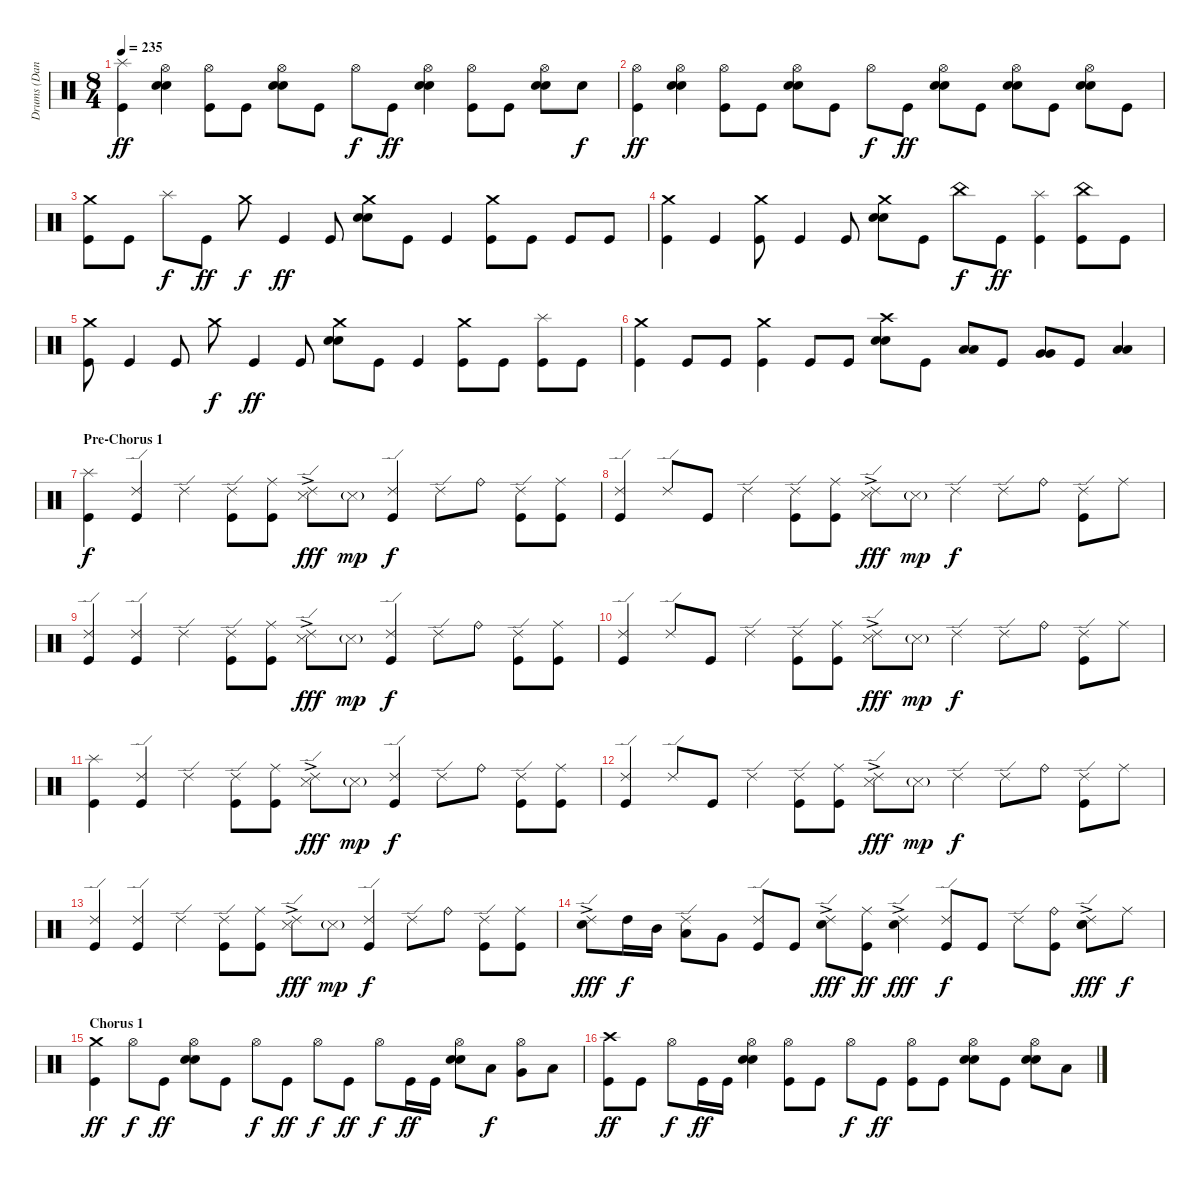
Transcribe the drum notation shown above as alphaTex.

\track ("Drums (Dan)" "Drums (Dan") {instrument percussion}
\staff {score}
\articulation defaults
\ts (8 4)
\tempo 235
\clef neutral
\ks c
("Kick (hit)" "Splash (hit)").4{dy ff} ("Electric Snare (hit)" "Electric Snare (hit)" "Hi-Hat (open)").4 ("Kick (hit)" "Hi-Hat (open)").8 "Kick (hit)".8 ("Electric Snare (hit)" "Electric Snare (hit)" "Hi-Hat (open)").8 "Kick (hit)".8 "Hi-Hat (open)".8{dy f} "Kick (hit)".8{dy ff} ("Electric Snare (hit)" "Electric Snare (hit)" "Hi-Hat (open)").4 ("Kick (hit)" "Hi-Hat (open)").8 "Kick (hit)".8 ("Electric Snare (hit)" "Electric Snare (hit)" "Hi-Hat (open)").8 "Electric Snare (hit)".8{dy f} |
("Kick (hit)" "Hi-Hat (open)").4{dy ff} ("Electric Snare (hit)" "Electric Snare (hit)" "Hi-Hat (open)").4 ("Kick (hit)" "Hi-Hat (open)").8 "Kick (hit)".8 ("Electric Snare (hit)" "Electric Snare (hit)" "Hi-Hat (open)").8 "Kick (hit)".8 "Hi-Hat (open)".8{dy f} "Kick (hit)".8{dy ff} ("Electric Snare (hit)" "Electric Snare (hit)" "Hi-Hat (open)").8 "Kick (hit)".8 ("Electric Snare (hit)" "Electric Snare (hit)" "Hi-Hat (open)").8 "Kick (hit)".8 ("Electric Snare (hit)" "Electric Snare (hit)" "Hi-Hat (open)").8 "Kick (hit)".8 |
("Kick (hit)" "Crash medium (hit)").8 "Kick (hit)".8 "Splash (hit)".8{dy f} "Kick (hit)".8{dy ff} "Crash medium (hit)".8{dy f} "Kick (hit)".4{dy ff} "Kick (hit)".8 ("Electric Snare (hit)" "Electric Snare (hit)" "Crash medium (hit)").8 "Kick (hit)".8 "Kick (hit)".4 ("Kick (hit)" "Crash medium (hit)").8 "Kick (hit)".8 "Kick (hit)".8 "Kick (hit)".8 |
("Kick (hit)" "Crash medium (hit)").4 "Kick (hit)".4 ("Kick (hit)" "Crash medium (hit)").8 "Kick (hit)".4 "Kick (hit)".8 ("Electric Snare (hit)" "Electric Snare (hit)" "Crash medium (hit)").8 "Kick (hit)".8 "China (hit)".8{dy f} "Kick (hit)".8{dy ff} ("Kick (hit)" "Splash (hit)").4 ("Kick (hit)" "China (hit)").8 "Kick (hit)".8 |
("Kick (hit)" "Crash medium (hit)").8 "Kick (hit)".4 "Kick (hit)".8 "Crash medium (hit)".8{dy f} "Kick (hit)".4{dy ff} "Kick (hit)".8 ("Electric Snare (hit)" "Electric Snare (hit)" "Crash medium (hit)").8 "Kick (hit)".8 "Kick (hit)".4 ("Kick (hit)" "Crash medium (hit)").8 "Kick (hit)".8 ("Kick (hit)" "Splash (hit)").8 "Kick (hit)".8 |
("Kick (hit)" "Crash medium (hit)").4 "Kick (hit)".8 "Kick (hit)".8 ("Kick (hit)" "Crash medium (hit)").4 "Kick (hit)".8 "Kick (hit)".8 ("Electric Snare (hit)" "Electric Snare (hit)" "Crash high (hit)").8 "Kick (hit)".8 ("Low Tom (hit)" "Low Tom (hit)").8 "Kick (hit)".8 ("Very Low Tom (hit)" "Very Low Tom (hit)").8 "Kick (hit)".8 ("Low Floor Tom (hit)" "Low Floor Tom (hit)").4 |
\section ("" "Pre-Chorus 1")
("Kick (hit)" "Splash (hit)").4{dy f} ("Kick (hit)" "Ride (edge) 2").4 "Ride (edge) 2".4 ("Kick (hit)" "Ride (edge) 2").8 ("Kick (hit)" "Ride (middle)").8 ("Snare (side stick) 3"{ac} "Ride (edge) 2").8{dy fff} "Snare (side stick) 3"{g}.8{dy mp} ("Kick (hit)" "Ride (edge) 2").4{dy f} "Ride (edge) 2".8 "Ride (bell)".8 ("Kick (hit)" "Ride (edge) 2").8 ("Kick (hit)" "Ride (middle)").8 |
("Kick (hit)" "Ride (edge) 2").4 "Ride (edge) 2".8 "Kick (hit)".8 "Ride (edge) 2".4 ("Kick (hit)" "Ride (edge) 2").8 ("Kick (hit)" "Ride (middle)").8 ("Snare (side stick) 3"{ac} "Ride (edge) 2").8{dy fff} "Snare (side stick) 3"{g}.8{dy mp} "Ride (edge) 2".4{dy f} "Ride (edge) 2".8 "Ride (bell)".8 ("Kick (hit)" "Ride (edge) 2").8 "Ride (middle)".8 |
("Kick (hit)" "Ride (edge) 2").4 ("Kick (hit)" "Ride (edge) 2").4 "Ride (edge) 2".4 ("Kick (hit)" "Ride (edge) 2").8 ("Kick (hit)" "Ride (middle)").8 ("Snare (side stick) 3"{ac} "Ride (edge) 2").8{dy fff} "Snare (side stick) 3"{g}.8{dy mp} ("Kick (hit)" "Ride (edge) 2").4{dy f} "Ride (edge) 2".8 "Ride (bell)".8 ("Kick (hit)" "Ride (edge) 2").8 ("Kick (hit)" "Ride (middle)").8 |
("Kick (hit)" "Ride (edge) 2").4 "Ride (edge) 2".8 "Kick (hit)".8 "Ride (edge) 2".4 ("Kick (hit)" "Ride (edge) 2").8 ("Kick (hit)" "Ride (middle)").8 ("Snare (side stick) 3"{ac} "Ride (edge) 2").8{dy fff} "Snare (side stick) 3"{g}.8{dy mp} "Ride (edge) 2".4{dy f} "Ride (edge) 2".8 "Ride (bell)".8 ("Kick (hit)" "Ride (edge) 2").8 "Ride (middle)".8 |
("Kick (hit)" "Splash (hit)").4 ("Kick (hit)" "Ride (edge) 2").4 "Ride (edge) 2".4 ("Kick (hit)" "Ride (edge) 2").8 ("Kick (hit)" "Ride (middle)").8 ("Snare (side stick) 3"{ac} "Ride (edge) 2").8{dy fff} "Snare (side stick) 3"{g}.8{dy mp} ("Kick (hit)" "Ride (edge) 2").4{dy f} "Ride (edge) 2".8 "Ride (bell)".8 ("Kick (hit)" "Ride (edge) 2").8 ("Kick (hit)" "Ride (middle)").8 |
("Kick (hit)" "Ride (edge) 2").4 "Ride (edge) 2".8 "Kick (hit)".8 "Ride (edge) 2".4 ("Kick (hit)" "Ride (edge) 2").8 ("Kick (hit)" "Ride (middle)").8 ("Snare (side stick) 3"{ac} "Ride (edge) 2").8{dy fff} "Snare (side stick) 3"{g}.8{dy mp} "Ride (edge) 2".4{dy f} "Ride (edge) 2".8 "Ride (bell)".8 ("Kick (hit)" "Ride (edge) 2").8 "Ride (middle)".8 |
("Kick (hit)" "Ride (edge) 2").4 ("Kick (hit)" "Ride (edge) 2").4 "Ride (edge) 2".4 ("Kick (hit)" "Ride (edge) 2").8 ("Kick (hit)" "Ride (middle)").8 ("Snare (side stick) 3"{ac} "Ride (edge) 2").8{dy fff} "Snare (side stick) 3"{g}.8{dy mp} ("Kick (hit)" "Ride (edge) 2").4{dy f} "Ride (edge) 2".8 "Ride (bell)".8 ("Kick (hit)" "Ride (edge) 2").8 ("Kick (hit)" "Ride (middle)").8 |
("Electric Snare (hit)"{ac} "Ride (edge) 2").8{dy fff} "High Tom (hit)".16{dy f} "Mid Tom (hit)".16 ("Low Tom (hit)" "Ride (edge) 2").8 "Very Low Tom (hit)".8 ("Kick (hit)" "Ride (edge) 2").8 "Kick (hit)".8 ("Electric Snare (hit)"{ac} "Ride (edge) 2").8{dy fff} ("Kick (hit)" "Ride (middle)").8{dy ff} ("Electric Snare (hit)"{ac} "Ride (edge) 2").4{dy fff} ("Kick (hit)" "Ride (edge) 2").8{dy f} "Kick (hit)".8 "Ride (edge) 2".8 ("Kick (hit)" "Ride (bell)").8 ("Electric Snare (hit)"{ac} "Electric Snare (hit)" "Ride (edge) 2").8{dy fff} "Ride (middle)".8{dy f} |
\section ("" "Chorus 1")
("Kick (hit)" "Crash medium (hit)").4{dy ff} "Hi-Hat (open)".8{dy f} "Kick (hit)".8{dy ff} ("Electric Snare (hit)" "Electric Snare (hit)" "Hi-Hat (open)").8 "Kick (hit)".8 "Hi-Hat (open)".8{dy f} "Kick (hit)".8{dy ff} "Hi-Hat (open)".8{dy f} "Kick (hit)".8{dy ff} "Hi-Hat (open)".8{dy f} "Kick (hit)".16{dy ff} "Kick (hit)".16 ("Electric Snare (hit)" "Electric Snare (hit)" "Hi-Hat (open)").8 "Low Tom (hit)".8{dy f} ("Very Low Tom (hit)" "Hi-Hat (open)").8 "Low Floor Tom (hit)".8 |
("Kick (hit)" "Crash high (hit)").8{dy ff} "Kick (hit)".8 "Hi-Hat (open)".8{dy f} "Kick (hit)".16{dy ff} "Kick (hit)".16 ("Electric Snare (hit)" "Electric Snare (hit)" "Hi-Hat (open)").4 ("Kick (hit)" "Hi-Hat (open)").8 "Kick (hit)".8 "Hi-Hat (open)".8{dy f} "Kick (hit)".8{dy ff} ("Kick (hit)" "Hi-Hat (open)").8 "Kick (hit)".8 ("Electric Snare (hit)" "Electric Snare (hit)" "Hi-Hat (open)").8 "Kick (hit)".8 ("Electric Snare (hit)" "Electric Snare (hit)" "Hi-Hat (open)").8 "Low Floor Tom (hit)".8
